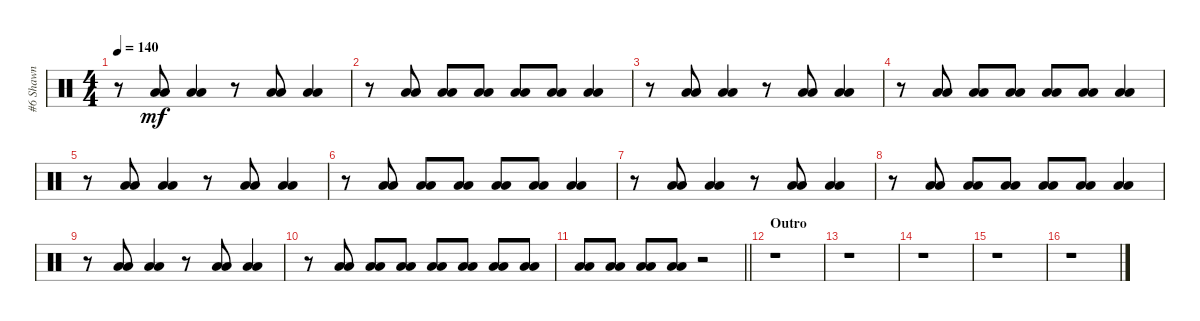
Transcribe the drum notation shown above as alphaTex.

\track ("#6 Shawn" "#6 Shawn") {solo instrument percussion}
\staff {score}
\articulation defaults
\ts (4 4)
\tempo 140
\clef neutral
\ks c
r.8{dy mf} ("Low Tom (hit)" "Low Floor Tom (hit)").8 ("Low Tom (hit)" "Low Floor Tom (hit)").4 r.8 ("Low Tom (hit)" "Low Floor Tom (hit)").8 ("Low Tom (hit)" "Low Floor Tom (hit)").4 |
r.8 ("Low Tom (hit)" "Low Floor Tom (hit)").8 ("Low Tom (hit)" "Low Floor Tom (hit)").8 ("Low Tom (hit)" "Low Floor Tom (hit)").8 ("Low Tom (hit)" "Low Floor Tom (hit)").8 ("Low Tom (hit)" "Low Floor Tom (hit)").8 ("Low Tom (hit)" "Low Floor Tom (hit)").4 |
r.8 ("Low Tom (hit)" "Low Floor Tom (hit)").8 ("Low Tom (hit)" "Low Floor Tom (hit)").4 r.8 ("Low Tom (hit)" "Low Floor Tom (hit)").8 ("Low Tom (hit)" "Low Floor Tom (hit)").4 |
r.8 ("Low Tom (hit)" "Low Floor Tom (hit)").8 ("Low Tom (hit)" "Low Floor Tom (hit)").8 ("Low Tom (hit)" "Low Floor Tom (hit)").8 ("Low Tom (hit)" "Low Floor Tom (hit)").8 ("Low Tom (hit)" "Low Floor Tom (hit)").8 ("Low Tom (hit)" "Low Floor Tom (hit)").4 |
r.8 ("Low Tom (hit)" "Low Floor Tom (hit)").8 ("Low Tom (hit)" "Low Floor Tom (hit)").4 r.8 ("Low Tom (hit)" "Low Floor Tom (hit)").8 ("Low Tom (hit)" "Low Floor Tom (hit)").4 |
r.8 ("Low Tom (hit)" "Low Floor Tom (hit)").8 ("Low Tom (hit)" "Low Floor Tom (hit)").8 ("Low Tom (hit)" "Low Floor Tom (hit)").8 ("Low Tom (hit)" "Low Floor Tom (hit)").8 ("Low Tom (hit)" "Low Floor Tom (hit)").8 ("Low Tom (hit)" "Low Floor Tom (hit)").4 |
r.8 ("Low Tom (hit)" "Low Floor Tom (hit)").8 ("Low Tom (hit)" "Low Floor Tom (hit)").4 r.8 ("Low Tom (hit)" "Low Floor Tom (hit)").8 ("Low Tom (hit)" "Low Floor Tom (hit)").4 |
r.8 ("Low Tom (hit)" "Low Floor Tom (hit)").8 ("Low Tom (hit)" "Low Floor Tom (hit)").8 ("Low Tom (hit)" "Low Floor Tom (hit)").8 ("Low Tom (hit)" "Low Floor Tom (hit)").8 ("Low Tom (hit)" "Low Floor Tom (hit)").8 ("Low Tom (hit)" "Low Floor Tom (hit)").4 |
r.8 ("Low Tom (hit)" "Low Floor Tom (hit)").8 ("Low Tom (hit)" "Low Floor Tom (hit)").4 r.8 ("Low Tom (hit)" "Low Floor Tom (hit)").8 ("Low Tom (hit)" "Low Floor Tom (hit)").4 |
r.8 ("Low Tom (hit)" "Low Floor Tom (hit)").8 ("Low Tom (hit)" "Low Floor Tom (hit)").8 ("Low Tom (hit)" "Low Floor Tom (hit)").8 ("Low Tom (hit)" "Low Floor Tom (hit)").8 ("Low Tom (hit)" "Low Floor Tom (hit)").8 ("Low Tom (hit)" "Low Floor Tom (hit)").8 ("Low Tom (hit)" "Low Floor Tom (hit)").8 |
\barLineRight lightlight
("Low Tom (hit)" "Low Floor Tom (hit)").8 ("Low Tom (hit)" "Low Floor Tom (hit)").8 ("Low Tom (hit)" "Low Floor Tom (hit)").8 ("Low Tom (hit)" "Low Floor Tom (hit)").8 r.2 |
\section ("" "Outro")
r.1 |
r.1 |
r.1 |
r.1 |
r.1
